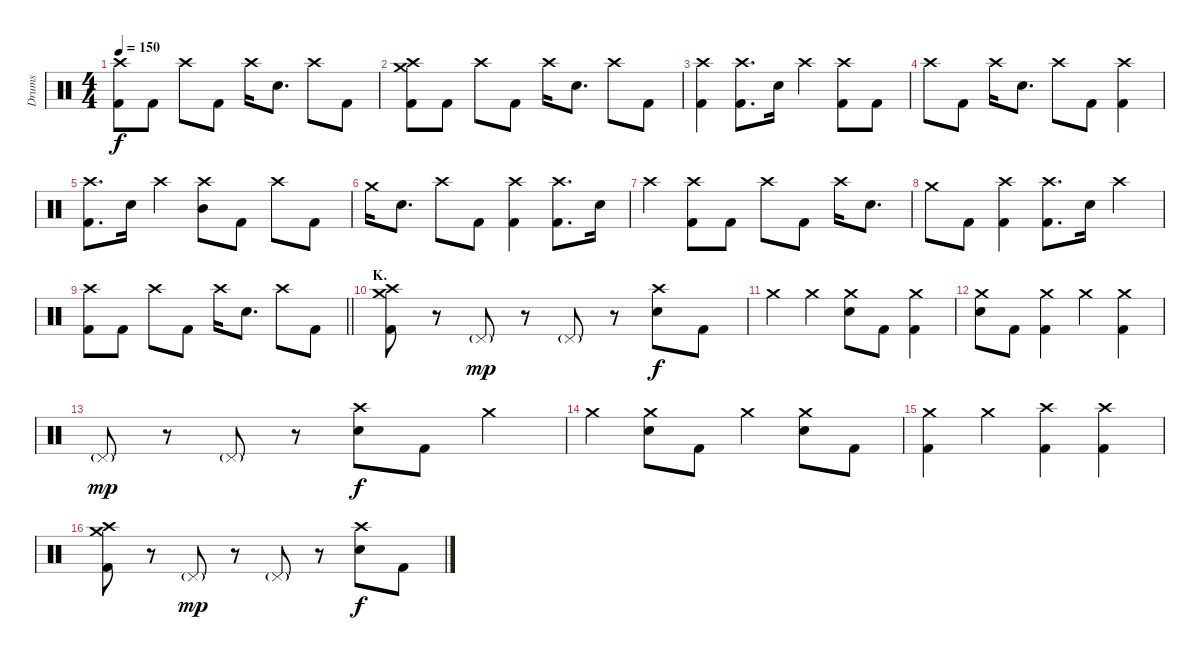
\track ("Drums" "Drums") {instrument percussion}
\staff {score}
\articulation defaults
\ts (4 4)
\tempo 150
\clef neutral
\ks c
("Crash high (hit)" "Kick (hit) 2").8{dy f} "Kick (hit) 2".8 "Crash high (hit)".8 "Kick (hit) 2".8 "Crash high (hit)".16 "Electric Snare (hit)".8{d} "Crash high (hit)".8 "Kick (hit) 2".8 |
("Crash medium (hit)" "Crash high (hit)" "Kick (hit) 2").8 "Kick (hit) 2".8 "Crash high (hit)".8 "Kick (hit) 2".8 "Crash high (hit)".16 "Electric Snare (hit)".8{d} "Crash high (hit)".8 "Kick (hit) 2".8 |
("Crash high (hit)" "Kick (hit) 2").4 ("Crash high (hit)" "Kick (hit) 2").8{d} "Electric Snare (hit)".16 "Crash high (hit)".4 ("Crash high (hit)" "Kick (hit) 2").8 "Kick (hit) 2".8 |
"Crash high (hit)".8 "Kick (hit) 2".8 "Crash high (hit)".16 "Electric Snare (hit)".8{d} "Crash high (hit)".8 "Kick (hit) 2".8 ("Crash high (hit)" "Kick (hit) 2").4 |
("Crash high (hit)" "Kick (hit) 2").8{d} "Electric Snare (hit)".16 "Crash high (hit)".4 ("Crash high (hit)" "Mid Tom (hit)").8 "Kick (hit) 2".8 "Crash high (hit)".8 "Kick (hit) 2".8 |
"Crash medium (hit)".16 "Electric Snare (hit)".8{d} "Crash high (hit)".8 "Kick (hit) 2".8 ("Crash high (hit)" "Kick (hit) 2").4 ("Crash high (hit)" "Kick (hit) 2").8{d} "Electric Snare (hit)".16 |
"Crash high (hit)".4 ("Crash high (hit)" "Kick (hit) 2").8 "Kick (hit) 2".8 "Crash high (hit)".8 "Kick (hit) 2".8 "Crash high (hit)".16 "Electric Snare (hit)".8{d} |
"Crash medium (hit)".8 "Kick (hit) 2".8 ("Crash high (hit)" "Kick (hit) 2").4 ("Crash high (hit)" "Kick (hit) 2").8{d} "Electric Snare (hit)".16 "Crash high (hit)".4 |
\barLineRight lightlight
("Crash high (hit)" "Kick (hit) 2").8 "Kick (hit) 2".8 "Crash high (hit)".8 "Kick (hit) 2".8 "Crash high (hit)".16 "Electric Snare (hit)".8{d} "Crash high (hit)".8 "Kick (hit) 2".8 |
\section ("" "K.")
("Crash medium (hit)" "Crash high (hit)" "Kick (hit) 2").8 r.8 "Pedal Hi-Hat (hit)"{g}.8{dy mp} r.8 "Pedal Hi-Hat (hit)"{g}.8 r.8 ("Crash high (hit)" "Electric Snare (hit)").8{dy f} "Kick (hit) 2".8 |
"Crash medium (hit)".4 "Crash medium (hit)".4 ("Crash medium (hit)" "Electric Snare (hit)").8 "Kick (hit) 2".8 ("Crash medium (hit)" "Kick (hit) 2").4 |
("Crash medium (hit)" "Electric Snare (hit)").8 "Kick (hit) 2".8 ("Crash medium (hit)" "Kick (hit) 2").4 "Crash medium (hit)".4 ("Crash medium (hit)" "Kick (hit) 2").4 |
"Pedal Hi-Hat (hit)"{g}.8{dy mp} r.8 "Pedal Hi-Hat (hit)"{g}.8 r.8 ("Crash high (hit)" "Electric Snare (hit)").8{dy f} "Kick (hit) 2".8 "Crash medium (hit)".4 |
"Crash medium (hit)".4 ("Crash medium (hit)" "Electric Snare (hit)").8 "Kick (hit) 2".8 "Crash medium (hit)".4 ("Crash medium (hit)" "Electric Snare (hit)").8 "Kick (hit) 2".8 |
("Crash medium (hit)" "Kick (hit) 2").4 "Crash medium (hit)".4 ("Crash high (hit)" "Kick (hit) 2").4 ("Crash high (hit)" "Kick (hit) 2").4 |
("Crash medium (hit)" "Crash high (hit)" "Kick (hit) 2").8 r.8 "Pedal Hi-Hat (hit)"{g}.8{dy mp} r.8 "Pedal Hi-Hat (hit)"{g}.8 r.8 ("Crash high (hit)" "Electric Snare (hit)").8{dy f} "Kick (hit) 2".8
